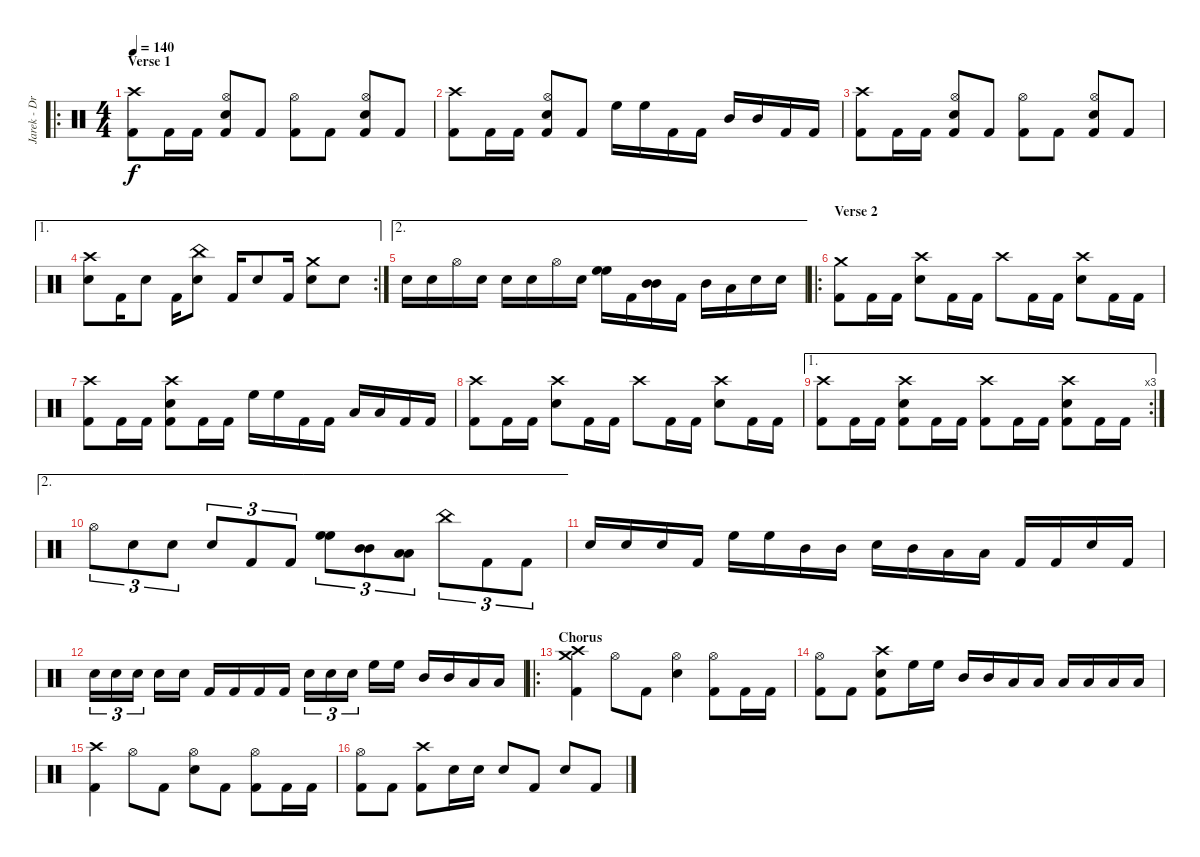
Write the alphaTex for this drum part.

\track ("Jarek - Drums" "Jarek - Dr") {instrument percussion}
\staff {score}
\articulation defaults
\ro
\ts (4 4)
\section ("" "Verse 1")
\tempo 140
\clef neutral
\ks c
("Crash high (hit)" "Kick (hit) 2").8{dy f} "Kick (hit) 2".16 "Kick (hit) 2".16 ("Hi-Hat (open)" "Snare (hit) 2" "Kick (hit) 2").8 "Kick (hit) 2".8 ("Hi-Hat (open)" "Kick (hit) 2").8 "Kick (hit) 2".8 ("Hi-Hat (open)" "Snare (hit) 2" "Kick (hit) 2").8 "Kick (hit) 2".8 |
("Crash high (hit)" "Kick (hit) 2").8 "Kick (hit) 2".16 "Kick (hit) 2".16 ("Hi-Hat (open)" "Snare (hit) 2" "Kick (hit) 2").8 "Kick (hit) 2".8 "High Floor Tom (hit)".16 "High Floor Tom (hit)".16 "Kick (hit) 2".16 "Kick (hit) 2".16 "Mid Tom (hit)".16 "Mid Tom (hit)".16 "Kick (hit) 2".16 "Kick (hit) 2".16 |
("Crash high (hit)" "Kick (hit) 2").8 "Kick (hit) 2".16 "Kick (hit) 2".16 ("Hi-Hat (open)" "Snare (hit) 2" "Kick (hit) 2").8 "Kick (hit) 2".8 ("Hi-Hat (open)" "Kick (hit) 2").8 "Kick (hit) 2".8 ("Hi-Hat (open)" "Snare (hit) 2" "Kick (hit) 2").8 "Kick (hit) 2".8 |
\ae 1
\rc 2
("Crash high (hit)" "Snare (hit) 2").8 "Kick (hit) 2".16 "Snare (hit) 2".8 "Kick (hit) 2".16 ("China (hit)" "Snare (hit) 2").8 "Kick (hit) 2".16 "Snare (hit) 2".8 "Kick (hit) 2".16 ("Crash medium (hit)" "Snare (hit) 2").8 "Snare (hit) 2".8 |
\ae 2 "Snare (hit) 2".16 "Snare (hit) 2".16 "Hi-Hat (open)".16 "Snare (hit) 2".16 "Snare (hit) 2".16 "Snare (hit) 2".16 "Hi-Hat (open)".16 "Snare (hit) 2".16
("High Floor Tom (hit)" "High Floor Tom (hit)").16 "Kick (hit) 2".16 ("Mid Tom (hit)" "Mid Tom (hit)").16 "Kick (hit) 2".16 "Mid Tom (hit)".16 "Low Tom (hit)".16 "Snare (hit) 2".16 "Snare (hit) 2".16 |
\ro
\section ("" "Verse 2")
("Crash medium (hit)" "Kick (hit) 2").8 "Kick (hit) 2".16 "Kick (hit) 2".16 ("Crash high (hit)" "Snare (hit) 2").8 "Kick (hit) 2".16 "Kick (hit) 2".16 "Crash high (hit)".8 "Kick (hit) 2".16 "Kick (hit) 2".16 ("Crash high (hit)" "Snare (hit) 2").8 "Kick (hit) 2".16 "Kick (hit) 2".16 |
("Crash high (hit)" "Kick (hit) 2").8 "Kick (hit) 2".16 "Kick (hit) 2".16 ("Crash high (hit)" "Snare (hit) 2" "Kick (hit) 2").8 "Kick (hit) 2".16 "Kick (hit) 2".16 "High Floor Tom (hit)".16 "High Floor Tom (hit)".16 "Kick (hit) 2".16 "Kick (hit) 2".16 "Low Tom (hit)".16 "Low Tom (hit)".16 "Kick (hit) 2".16 "Kick (hit) 2".16 |
("Crash high (hit)" "Kick (hit) 2").8 "Kick (hit) 2".16 "Kick (hit) 2".16 ("Crash high (hit)" "Snare (hit) 2").8 "Kick (hit) 2".16 "Kick (hit) 2".16 "Crash high (hit)".8 "Kick (hit) 2".16 "Kick (hit) 2".16 ("Crash high (hit)" "Snare (hit) 2").8 "Kick (hit) 2".16 "Kick (hit) 2".16 |
\ae 1
\rc 3
("Crash high (hit)" "Kick (hit) 2").8 "Kick (hit) 2".16 "Kick (hit) 2".16 ("Crash high (hit)" "Snare (hit) 2" "Kick (hit) 2").8 "Kick (hit) 2".16 "Kick (hit) 2".16 ("Crash high (hit)" "Kick (hit) 2").8 "Kick (hit) 2".16 "Kick (hit) 2".16 ("Crash high (hit)" "Snare (hit) 2" "Kick (hit) 2").8 "Kick (hit) 2".16 "Kick (hit) 2".16 |
\ae 2 "Hi-Hat (open)".8{tu (3 2)} "Snare (hit) 2".8{tu (3 2)} "Snare (hit) 2".8{tu (3 2)} "Snare (hit) 2".8{tu (3 2)} "Kick (hit) 2".8{tu (3 2)} "Kick (hit) 2".8{tu (3 2)}
("High Floor Tom (hit)" "High Floor Tom (hit)").8{tu (3 2)} ("Mid Tom (hit)" "Mid Tom (hit)").8{tu (3 2)} ("Low Tom (hit)" "Low Tom (hit)").8{tu (3 2)} "China (hit)".8{tu (3 2)} "Kick (hit) 2".8{tu (3 2)} "Kick (hit) 2".8{tu (3 2)} |
"Snare (hit) 2".16 "Snare (hit) 2".16 "Snare (hit) 2".16 "Kick (hit) 2".16 "High Floor Tom (hit)".16 "High Floor Tom (hit)".16 "Mid Tom (hit)".16 "Mid Tom (hit)".16 "Snare (hit) 2".16 "Mid Tom (hit)".16 "Low Tom (hit)".16 "Low Tom (hit)".16 "Kick (hit) 2".16 "Kick (hit) 2".16 "Snare (hit) 2".16 "Kick (hit) 2".16 |
"Snare (hit) 2".16{tu (3 2)} "Snare (hit) 2".16{tu (3 2)} "Snare (hit) 2".16{tu (3 2)} "Snare (hit) 2".16 "Snare (hit) 2".16 "Kick (hit) 2".16 "Kick (hit) 2".16 "Kick (hit) 2".16 "Kick (hit) 2".16 "Snare (hit) 2".16{tu (3 2)} "Snare (hit) 2".16{tu (3 2)} "Snare (hit) 2".16{tu (3 2)} "High Floor Tom (hit)".16 "High Floor Tom (hit)".16 "Mid Tom (hit)".16 "Mid Tom (hit)".16 "Low Tom (hit)".16 "Low Tom (hit)".16 |
\ro
\section ("" "Chorus")
("Crash high (hit)" "Crash medium (hit)" "Kick (hit) 2").4 "Hi-Hat (open)".8 "Kick (hit) 2".8 ("Hi-Hat (open)" "Snare (hit) 2").4 ("Hi-Hat (open)" "Kick (hit) 2").8 "Kick (hit) 2".16 "Kick (hit) 2".16 |
("Hi-Hat (open)" "Kick (hit) 2").8 "Kick (hit) 2".8 ("Crash high (hit)" "Snare (hit) 2" "Kick (hit) 2").8 "High Floor Tom (hit)".16 "High Floor Tom (hit)".16 "Mid Tom (hit)".16 "Mid Tom (hit)".16 "Low Tom (hit)".16 "Low Tom (hit)".16 "Low Tom (hit)".16 "Low Floor Tom (hit)".16 "Low Floor Tom (hit)".16 "Low Floor Tom (hit)".16 |
("Crash high (hit)" "Kick (hit) 2").4 "Hi-Hat (open)".8 "Kick (hit) 2".8 ("Hi-Hat (open)" "Snare (hit) 2").8 "Kick (hit) 2".8 ("Hi-Hat (open)" "Kick (hit) 2").8 "Kick (hit) 2".16 "Kick (hit) 2".16 |
("Hi-Hat (open)" "Kick (hit) 2").8 "Kick (hit) 2".8 ("Crash high (hit)" "Kick (hit) 2").8 "Snare (hit) 2".16 "Snare (hit) 2".16 "Snare (hit) 2".8 "Kick (hit) 2".8 "Snare (hit) 2".8 "Kick (hit) 2".8
